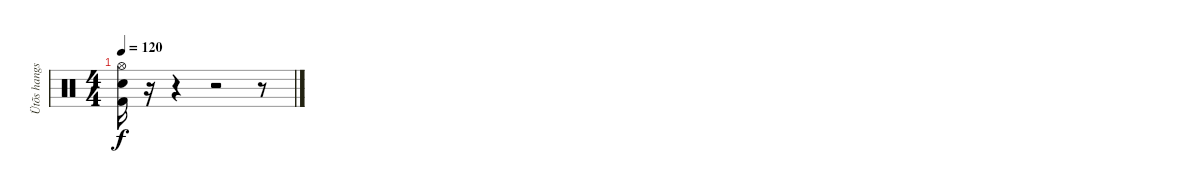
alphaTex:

\track ("Ütõs hangszer" "Ütõs hangs") {instrument percussion}
\staff {score}
\articulation defaults
\ts (4 4)
\tempo 120
\clef neutral
\ks c
("Hi-Hat (open)" "Electric Snare (hit)" "Kick (hit) 2").16{dy f} r.16 r.4 r.2 r.8
